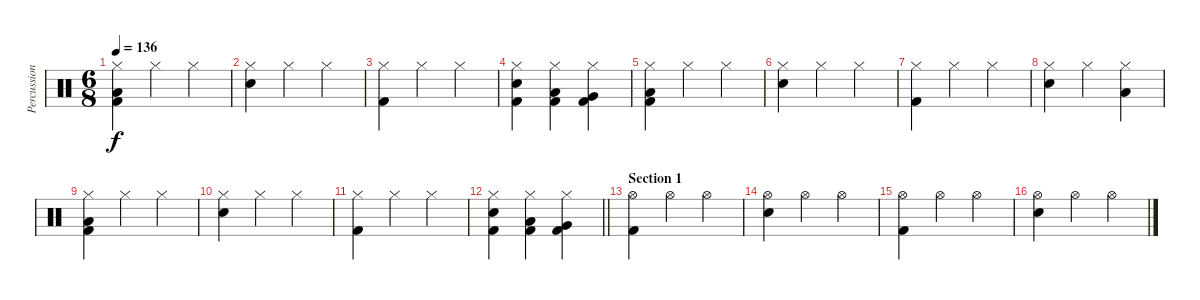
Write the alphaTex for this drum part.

\track ("Percussion" "Percussion") {instrument percussion}
\staff {score}
\articulation defaults
\ts (6 8)
\tempo 136
\clef neutral
\ks c
("Hi-Hat (closed)" "Low Tom (hit)" "Kick (hit) 2").4{dy f} "Hi-Hat (closed)".4 "Hi-Hat (closed)".4 |
("Hi-Hat (closed)" "Snare (hit) 2").4 "Hi-Hat (closed)".4 "Hi-Hat (closed)".4 |
("Hi-Hat (closed)" "Kick (hit) 2").4 "Hi-Hat (closed)".4 "Hi-Hat (closed)".4 |
("Hi-Hat (closed)" "Snare (hit) 2" "Kick (hit) 2").4 ("Hi-Hat (closed)" "Low Floor Tom (hit)" "Kick (hit) 2").4 ("Hi-Hat (closed)" "Very Low Tom (hit)" "Kick (hit) 2").4 |
("Hi-Hat (closed)" "Low Tom (hit)" "Kick (hit) 2").4 "Hi-Hat (closed)".4 "Hi-Hat (closed)".4 |
("Hi-Hat (closed)" "Snare (hit) 2").4 "Hi-Hat (closed)".4 "Hi-Hat (closed)".4 |
("Hi-Hat (closed)" "Kick (hit) 2").4 "Hi-Hat (closed)".4 "Hi-Hat (closed)".4 |
("Hi-Hat (closed)" "Snare (hit) 2").4 "Hi-Hat (closed)".4 ("Hi-Hat (closed)" "Low Floor Tom (hit)").4 |
("Hi-Hat (closed)" "Low Tom (hit)" "Kick (hit) 2").4 "Hi-Hat (closed)".4 "Hi-Hat (closed)".4 |
("Hi-Hat (closed)" "Snare (hit) 2").4 "Hi-Hat (closed)".4 "Hi-Hat (closed)".4 |
("Hi-Hat (closed)" "Kick (hit) 2").4 "Hi-Hat (closed)".4 "Hi-Hat (closed)".4 |
\barLineRight lightlight
("Hi-Hat (closed)" "Snare (hit) 2" "Kick (hit) 2").4 ("Hi-Hat (closed)" "Low Floor Tom (hit)" "Kick (hit) 2").4 ("Hi-Hat (closed)" "Very Low Tom (hit)" "Kick (hit) 2").4 |
\section ("" "Section 1")
("Hi-Hat (open)" "Kick (hit) 2").4 "Hi-Hat (open)".4 "Hi-Hat (open)".4 |
("Hi-Hat (open)" "Snare (hit) 2").4 "Hi-Hat (open)".4 "Hi-Hat (open)".4 |
("Hi-Hat (open)" "Kick (hit) 2").4 "Hi-Hat (open)".4 "Hi-Hat (open)".4 |
("Hi-Hat (open)" "Snare (hit) 2").4 "Hi-Hat (open)".4 "Hi-Hat (open)".4
